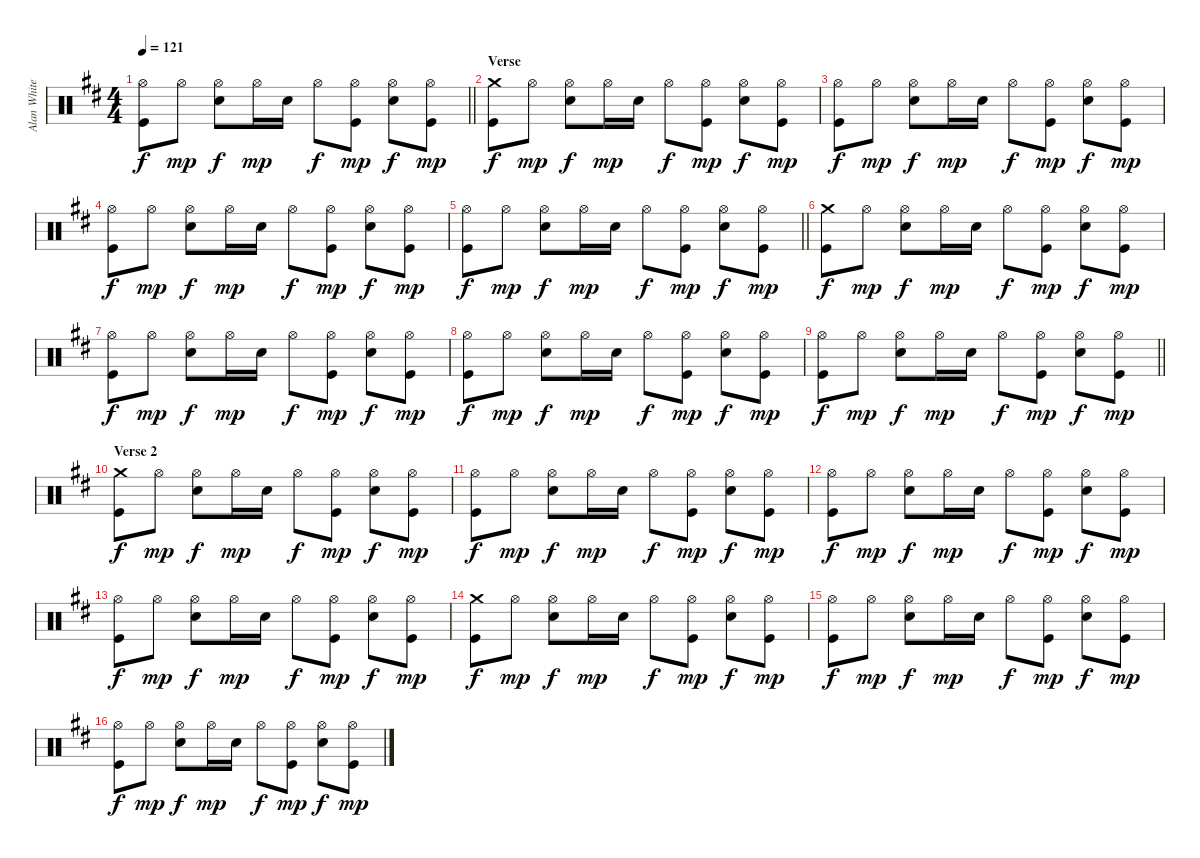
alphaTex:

\track ("Alan White" "Alan White") {instrument percussion}
\staff {score}
\articulation defaults
\ts (4 4)
\tempo 121
\clef neutral
\barLineRight lightlight
\ks d
("Hi-Hat (open)" "Kick (hit)").8{dy f} "Hi-Hat (open)".8{dy mp} ("Hi-Hat (open)" "Electric Snare (hit)").8{dy f} "Hi-Hat (open)".16{dy mp} "Electric Snare (hit)".16 "Hi-Hat (open)".8{dy f} ("Hi-Hat (open)" "Kick (hit)").8{dy mp} ("Hi-Hat (open)" "Electric Snare (hit)").8{dy f} ("Hi-Hat (open)" "Kick (hit)").8{dy mp} |
\section ("" "Verse")
("Crash medium (hit)" "Kick (hit)").8{dy f} "Hi-Hat (open)".8{dy mp} ("Hi-Hat (open)" "Electric Snare (hit)").8{dy f} "Hi-Hat (open)".16{dy mp} "Electric Snare (hit)".16 "Hi-Hat (open)".8{dy f} ("Hi-Hat (open)" "Kick (hit)").8{dy mp} ("Hi-Hat (open)" "Electric Snare (hit)").8{dy f} ("Hi-Hat (open)" "Kick (hit)").8{dy mp} |
("Hi-Hat (open)" "Kick (hit)").8{dy f} "Hi-Hat (open)".8{dy mp} ("Hi-Hat (open)" "Electric Snare (hit)").8{dy f} "Hi-Hat (open)".16{dy mp} "Electric Snare (hit)".16 "Hi-Hat (open)".8{dy f} ("Hi-Hat (open)" "Kick (hit)").8{dy mp} ("Hi-Hat (open)" "Electric Snare (hit)").8{dy f} ("Hi-Hat (open)" "Kick (hit)").8{dy mp} |
("Hi-Hat (open)" "Kick (hit)").8{dy f} "Hi-Hat (open)".8{dy mp} ("Hi-Hat (open)" "Electric Snare (hit)").8{dy f} "Hi-Hat (open)".16{dy mp} "Electric Snare (hit)".16 "Hi-Hat (open)".8{dy f} ("Hi-Hat (open)" "Kick (hit)").8{dy mp} ("Hi-Hat (open)" "Electric Snare (hit)").8{dy f} ("Hi-Hat (open)" "Kick (hit)").8{dy mp} |
\barLineRight lightlight
("Hi-Hat (open)" "Kick (hit)").8{dy f} "Hi-Hat (open)".8{dy mp} ("Hi-Hat (open)" "Electric Snare (hit)").8{dy f} "Hi-Hat (open)".16{dy mp} "Electric Snare (hit)".16 "Hi-Hat (open)".8{dy f} ("Hi-Hat (open)" "Kick (hit)").8{dy mp} ("Hi-Hat (open)" "Electric Snare (hit)").8{dy f} ("Hi-Hat (open)" "Kick (hit)").8{dy mp} |
("Crash medium (hit)" "Kick (hit)").8{dy f} "Hi-Hat (open)".8{dy mp} ("Hi-Hat (open)" "Electric Snare (hit)").8{dy f} "Hi-Hat (open)".16{dy mp} "Electric Snare (hit)".16 "Hi-Hat (open)".8{dy f} ("Hi-Hat (open)" "Kick (hit)").8{dy mp} ("Hi-Hat (open)" "Electric Snare (hit)").8{dy f} ("Hi-Hat (open)" "Kick (hit)").8{dy mp} |
("Hi-Hat (open)" "Kick (hit)").8{dy f} "Hi-Hat (open)".8{dy mp} ("Hi-Hat (open)" "Electric Snare (hit)").8{dy f} "Hi-Hat (open)".16{dy mp} "Electric Snare (hit)".16 "Hi-Hat (open)".8{dy f} ("Hi-Hat (open)" "Kick (hit)").8{dy mp} ("Hi-Hat (open)" "Electric Snare (hit)").8{dy f} ("Hi-Hat (open)" "Kick (hit)").8{dy mp} |
("Hi-Hat (open)" "Kick (hit)").8{dy f} "Hi-Hat (open)".8{dy mp} ("Hi-Hat (open)" "Electric Snare (hit)").8{dy f} "Hi-Hat (open)".16{dy mp} "Electric Snare (hit)".16 "Hi-Hat (open)".8{dy f} ("Hi-Hat (open)" "Kick (hit)").8{dy mp} ("Hi-Hat (open)" "Electric Snare (hit)").8{dy f} ("Hi-Hat (open)" "Kick (hit)").8{dy mp} |
\barLineRight lightlight
("Hi-Hat (open)" "Kick (hit)").8{dy f} "Hi-Hat (open)".8{dy mp} ("Hi-Hat (open)" "Electric Snare (hit)").8{dy f} "Hi-Hat (open)".16{dy mp} "Electric Snare (hit)".16 "Hi-Hat (open)".8{dy f} ("Hi-Hat (open)" "Kick (hit)").8{dy mp} ("Hi-Hat (open)" "Electric Snare (hit)").8{dy f} ("Hi-Hat (open)" "Kick (hit)").8{dy mp} |
\section ("" "Verse 2")
("Crash medium (hit)" "Kick (hit)").8{dy f} "Hi-Hat (open)".8{dy mp} ("Hi-Hat (open)" "Electric Snare (hit)").8{dy f} "Hi-Hat (open)".16{dy mp} "Electric Snare (hit)".16 "Hi-Hat (open)".8{dy f} ("Hi-Hat (open)" "Kick (hit)").8{dy mp} ("Hi-Hat (open)" "Electric Snare (hit)").8{dy f} ("Hi-Hat (open)" "Kick (hit)").8{dy mp} |
("Hi-Hat (open)" "Kick (hit)").8{dy f} "Hi-Hat (open)".8{dy mp} ("Hi-Hat (open)" "Electric Snare (hit)").8{dy f} "Hi-Hat (open)".16{dy mp} "Electric Snare (hit)".16 "Hi-Hat (open)".8{dy f} ("Hi-Hat (open)" "Kick (hit)").8{dy mp} ("Hi-Hat (open)" "Electric Snare (hit)").8{dy f} ("Hi-Hat (open)" "Kick (hit)").8{dy mp} |
("Hi-Hat (open)" "Kick (hit)").8{dy f} "Hi-Hat (open)".8{dy mp} ("Hi-Hat (open)" "Electric Snare (hit)").8{dy f} "Hi-Hat (open)".16{dy mp} "Electric Snare (hit)".16 "Hi-Hat (open)".8{dy f} ("Hi-Hat (open)" "Kick (hit)").8{dy mp} ("Hi-Hat (open)" "Electric Snare (hit)").8{dy f} ("Hi-Hat (open)" "Kick (hit)").8{dy mp} |
("Hi-Hat (open)" "Kick (hit)").8{dy f} "Hi-Hat (open)".8{dy mp} ("Hi-Hat (open)" "Electric Snare (hit)").8{dy f} "Hi-Hat (open)".16{dy mp} "Electric Snare (hit)".16 "Hi-Hat (open)".8{dy f} ("Hi-Hat (open)" "Kick (hit)").8{dy mp} ("Hi-Hat (open)" "Electric Snare (hit)").8{dy f} ("Hi-Hat (open)" "Kick (hit)").8{dy mp} |
("Crash medium (hit)" "Kick (hit)").8{dy f} "Hi-Hat (open)".8{dy mp} ("Hi-Hat (open)" "Electric Snare (hit)").8{dy f} "Hi-Hat (open)".16{dy mp} "Electric Snare (hit)".16 "Hi-Hat (open)".8{dy f} ("Hi-Hat (open)" "Kick (hit)").8{dy mp} ("Hi-Hat (open)" "Electric Snare (hit)").8{dy f} ("Hi-Hat (open)" "Kick (hit)").8{dy mp} |
("Hi-Hat (open)" "Kick (hit)").8{dy f} "Hi-Hat (open)".8{dy mp} ("Hi-Hat (open)" "Electric Snare (hit)").8{dy f} "Hi-Hat (open)".16{dy mp} "Electric Snare (hit)".16 "Hi-Hat (open)".8{dy f} ("Hi-Hat (open)" "Kick (hit)").8{dy mp} ("Hi-Hat (open)" "Electric Snare (hit)").8{dy f} ("Hi-Hat (open)" "Kick (hit)").8{dy mp} |
("Hi-Hat (open)" "Kick (hit)").8{dy f} "Hi-Hat (open)".8{dy mp} ("Hi-Hat (open)" "Electric Snare (hit)").8{dy f} "Hi-Hat (open)".16{dy mp} "Electric Snare (hit)".16 "Hi-Hat (open)".8{dy f} ("Hi-Hat (open)" "Kick (hit)").8{dy mp} ("Hi-Hat (open)" "Electric Snare (hit)").8{dy f} ("Hi-Hat (open)" "Kick (hit)").8{dy mp}
